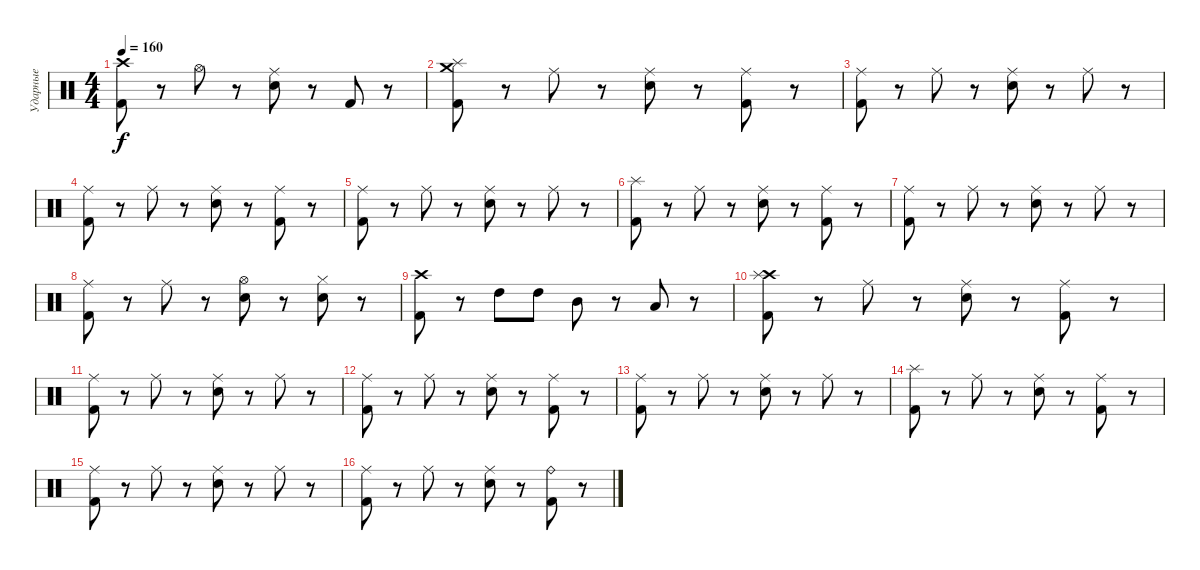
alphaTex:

\track ("Ударные" "Ударные") {instrument percussion}
\staff {score}
\articulation defaults
\ts (4 4)
\tempo 160
\clef neutral
\ks c
("Kick (hit) 2" "Crash high (hit)").8{dy f} r.8 "Hi-Hat (open)".8 r.8 ("Electric Snare (hit)" "Ride (middle)").8 r.8 "Kick (hit) 2".8 r.8 |
("Kick (hit) 2" "Crash medium (hit)" "Splash (hit)").8 r.8 "Ride (middle)".8 r.8 ("Electric Snare (hit)" "Ride (middle)").8 r.8 ("Kick (hit) 2" "Ride (middle)").8 r.8 |
("Kick (hit) 2" "Ride (middle)").8 r.8 "Ride (middle)".8 r.8 ("Electric Snare (hit)" "Ride (middle)").8 r.8 "Ride (middle)".8 r.8 |
("Kick (hit) 2" "Ride (middle)").8 r.8 "Ride (middle)".8 r.8 ("Electric Snare (hit)" "Ride (middle)").8 r.8 ("Kick (hit) 2" "Ride (middle)").8 r.8 |
("Kick (hit) 2" "Ride (middle)").8 r.8 "Ride (middle)".8 r.8 ("Electric Snare (hit)" "Ride (middle)").8 r.8 "Ride (middle)".8 r.8 |
("Kick (hit) 2" "Splash (hit)").8 r.8 "Ride (middle)".8 r.8 ("Electric Snare (hit)" "Ride (middle)").8 r.8 ("Kick (hit) 2" "Ride (middle)").8 r.8 |
("Kick (hit) 2" "Ride (middle)").8 r.8 "Ride (middle)".8 r.8 ("Electric Snare (hit)" "Ride (middle)").8 r.8 "Ride (middle)".8 r.8 |
("Kick (hit) 2" "Ride (middle)").8 r.8 "Ride (middle)".8 r.8 ("Electric Snare (hit)" "Hi-Hat (open)").8 r.8 ("Electric Snare (hit)" "Hi-Hat (closed)").8 r.8 |
("Kick (hit) 2" "Crash high (hit)").8 r.8 "High Tom (hit)".8 "High Tom (hit)".8 "Mid Tom (hit)".8 r.8 "Low Tom (hit)".8 r.8 |
("Kick (hit) 2" "Crash high (hit)" "Splash (hit)").8 r.8 "Ride (middle)".8 r.8 ("Electric Snare (hit)" "Ride (middle)").8 r.8 ("Kick (hit) 2" "Ride (middle)").8 r.8 |
("Kick (hit) 2" "Ride (middle)").8 r.8 "Ride (middle)".8 r.8 ("Electric Snare (hit)" "Ride (middle)").8 r.8 "Ride (middle)".8 r.8 |
("Kick (hit) 2" "Ride (middle)").8 r.8 "Ride (middle)".8 r.8 ("Electric Snare (hit)" "Ride (middle)").8 r.8 ("Kick (hit) 2" "Ride (middle)").8 r.8 |
("Kick (hit) 2" "Ride (middle)").8 r.8 "Ride (middle)".8 r.8 ("Electric Snare (hit)" "Ride (middle)").8 r.8 "Ride (middle)".8 r.8 |
("Kick (hit) 2" "Splash (hit)").8 r.8 "Ride (middle)".8 r.8 ("Electric Snare (hit)" "Ride (middle)").8 r.8 ("Kick (hit) 2" "Ride (middle)").8 r.8 |
("Kick (hit) 2" "Ride (middle)").8 r.8 "Ride (middle)".8 r.8 ("Electric Snare (hit)" "Ride (middle)").8 r.8 "Ride (middle)".8 r.8 |
("Kick (hit) 2" "Ride (middle)").8 r.8 "Ride (middle)".8 r.8 ("Electric Snare (hit)" "Ride (middle)").8 r.8 ("Kick (hit) 2" "Ride (bell)").8 r.8
